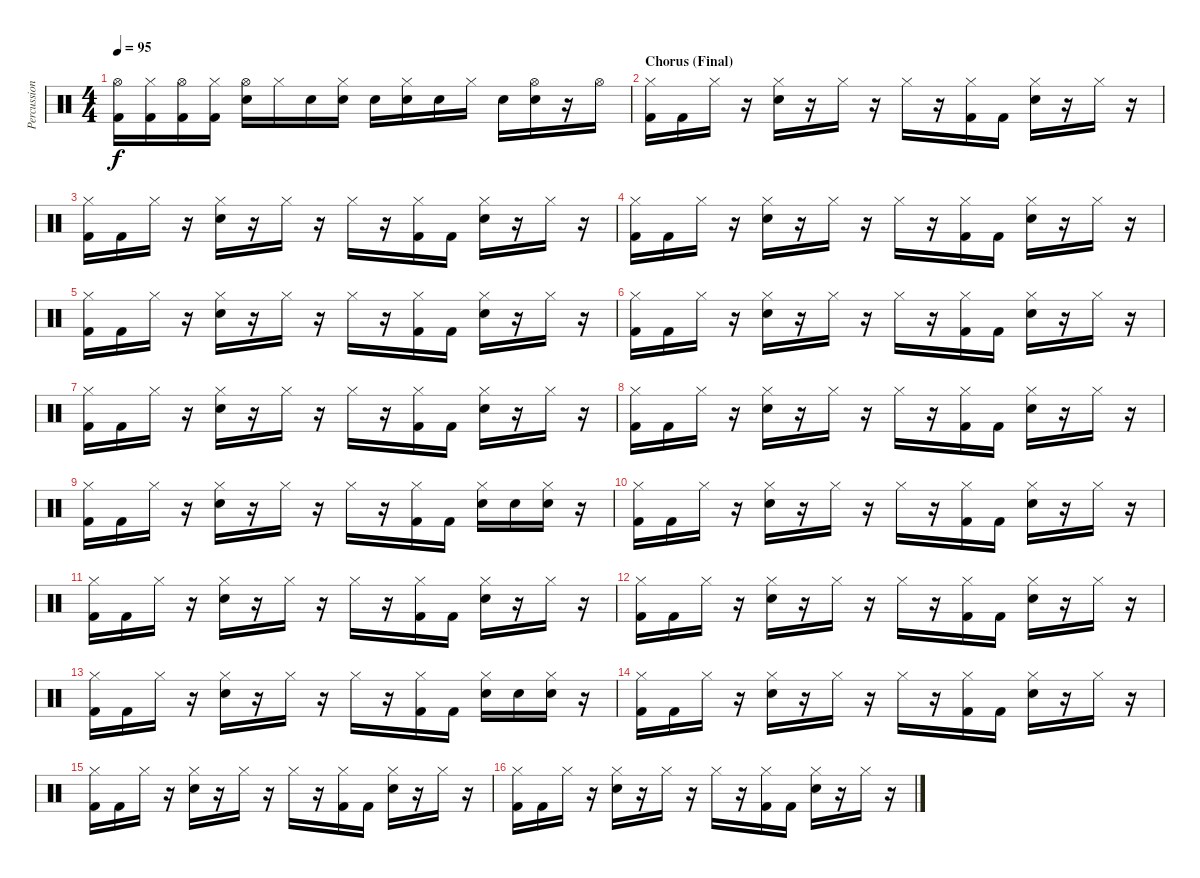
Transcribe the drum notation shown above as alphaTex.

\track ("Percussion" "Percussion") {instrument percussion}
\staff {score}
\articulation defaults
\ts (4 4)
\tempo 95
\clef neutral
\ks c
("Kick (hit) 2" "Hi-Hat (open)").16{dy f} ("Kick (hit) 2" "Hi-Hat (closed)"{x}).16 ("Kick (hit) 2" "Hi-Hat (open)").16 ("Kick (hit) 2" "Hi-Hat (closed)"{x}).16 ("Snare (hit) 2" "Hi-Hat (open)").16 "Hi-Hat (closed)"{x}.16 "Snare (hit) 2".16 ("Snare (hit) 2" "Hi-Hat (closed)"{x}).16 "Snare (hit) 2".16 ("Snare (hit) 2" "Hi-Hat (closed)"{x}).16 "Snare (hit) 2".16 "Hi-Hat (closed)"{x}.16 "Snare (hit) 2".16 ("Snare (hit) 2" "Hi-Hat (open)").16 r.16 "Hi-Hat (open)"{x}.16 |
\section ("" "Chorus (Final)")
("Hi-Hat (closed)" "Kick (hit) 2").16 "Kick (hit) 2".16 "Hi-Hat (closed)".16 r.16 ("Hi-Hat (closed)" "Snare (hit) 2").16 r.16 "Hi-Hat (closed)".16 r.16 "Hi-Hat (closed)".16 r.16 ("Hi-Hat (closed)" "Kick (hit) 2").16 "Kick (hit) 2".16 ("Hi-Hat (closed)" "Snare (hit) 2").16 r.16 "Hi-Hat (closed)".16 r.16 |
("Hi-Hat (closed)" "Kick (hit) 2").16 "Kick (hit) 2".16 "Hi-Hat (closed)".16 r.16 ("Hi-Hat (closed)" "Snare (hit) 2").16 r.16 "Hi-Hat (closed)".16 r.16 "Hi-Hat (closed)".16 r.16 ("Hi-Hat (closed)" "Kick (hit) 2").16 "Kick (hit) 2".16 ("Hi-Hat (closed)" "Snare (hit) 2").16 r.16 "Hi-Hat (closed)".16 r.16 |
("Hi-Hat (closed)" "Kick (hit) 2").16 "Kick (hit) 2".16 "Hi-Hat (closed)".16 r.16 ("Hi-Hat (closed)" "Snare (hit) 2").16 r.16 "Hi-Hat (closed)".16 r.16 "Hi-Hat (closed)".16 r.16 ("Hi-Hat (closed)" "Kick (hit) 2").16 "Kick (hit) 2".16 ("Hi-Hat (closed)" "Snare (hit) 2").16 r.16 "Hi-Hat (closed)".16 r.16 |
("Hi-Hat (closed)" "Kick (hit) 2").16 "Kick (hit) 2".16 "Hi-Hat (closed)".16 r.16 ("Hi-Hat (closed)" "Snare (hit) 2").16 r.16 "Hi-Hat (closed)".16 r.16 "Hi-Hat (closed)".16 r.16 ("Hi-Hat (closed)" "Kick (hit) 2").16 "Kick (hit) 2".16 ("Hi-Hat (closed)" "Snare (hit) 2").16 r.16 "Hi-Hat (closed)".16 r.16 |
("Hi-Hat (closed)" "Kick (hit) 2").16 "Kick (hit) 2".16 "Hi-Hat (closed)".16 r.16 ("Hi-Hat (closed)" "Snare (hit) 2").16 r.16 "Hi-Hat (closed)".16 r.16 "Hi-Hat (closed)".16 r.16 ("Hi-Hat (closed)" "Kick (hit) 2").16 "Kick (hit) 2".16 ("Hi-Hat (closed)" "Snare (hit) 2").16 r.16 "Hi-Hat (closed)".16 r.16 |
("Hi-Hat (closed)" "Kick (hit) 2").16 "Kick (hit) 2".16 "Hi-Hat (closed)".16 r.16 ("Hi-Hat (closed)" "Snare (hit) 2").16 r.16 "Hi-Hat (closed)".16 r.16 "Hi-Hat (closed)".16 r.16 ("Hi-Hat (closed)" "Kick (hit) 2").16 "Kick (hit) 2".16 ("Hi-Hat (closed)" "Snare (hit) 2").16 r.16 "Hi-Hat (closed)".16 r.16 |
("Hi-Hat (closed)" "Kick (hit) 2").16 "Kick (hit) 2".16 "Hi-Hat (closed)".16 r.16 ("Hi-Hat (closed)" "Snare (hit) 2").16 r.16 "Hi-Hat (closed)".16 r.16 "Hi-Hat (closed)".16 r.16 ("Hi-Hat (closed)" "Kick (hit) 2").16 "Kick (hit) 2".16 ("Hi-Hat (closed)" "Snare (hit) 2").16 r.16 "Hi-Hat (closed)".16 r.16 |
("Hi-Hat (closed)" "Kick (hit) 2").16 "Kick (hit) 2".16 "Hi-Hat (closed)".16 r.16 ("Hi-Hat (closed)" "Snare (hit) 2").16 r.16 "Hi-Hat (closed)".16 r.16 "Hi-Hat (closed)".16 r.16 ("Hi-Hat (closed)" "Kick (hit) 2").16 "Kick (hit) 2".16 ("Hi-Hat (closed)" "Snare (hit) 2").16 "Snare (hit) 2".16 ("Hi-Hat (closed)" "Snare (hit) 2").16 r.16 |
("Hi-Hat (closed)" "Kick (hit) 2").16 "Kick (hit) 2".16 "Hi-Hat (closed)".16 r.16 ("Hi-Hat (closed)" "Snare (hit) 2").16 r.16 "Hi-Hat (closed)".16 r.16 "Hi-Hat (closed)".16 r.16 ("Hi-Hat (closed)" "Kick (hit) 2").16 "Kick (hit) 2".16 ("Hi-Hat (closed)" "Snare (hit) 2").16 r.16 "Hi-Hat (closed)".16 r.16 |
("Hi-Hat (closed)" "Kick (hit) 2").16 "Kick (hit) 2".16 "Hi-Hat (closed)".16 r.16 ("Hi-Hat (closed)" "Snare (hit) 2").16 r.16 "Hi-Hat (closed)".16 r.16 "Hi-Hat (closed)".16 r.16 ("Hi-Hat (closed)" "Kick (hit) 2").16 "Kick (hit) 2".16 ("Hi-Hat (closed)" "Snare (hit) 2").16 r.16 "Hi-Hat (closed)".16 r.16 |
("Hi-Hat (closed)" "Kick (hit) 2").16 "Kick (hit) 2".16 "Hi-Hat (closed)".16 r.16 ("Hi-Hat (closed)" "Snare (hit) 2").16 r.16 "Hi-Hat (closed)".16 r.16 "Hi-Hat (closed)".16 r.16 ("Hi-Hat (closed)" "Kick (hit) 2").16 "Kick (hit) 2".16 ("Hi-Hat (closed)" "Snare (hit) 2").16 r.16 "Hi-Hat (closed)".16 r.16 |
("Hi-Hat (closed)" "Kick (hit) 2").16 "Kick (hit) 2".16 "Hi-Hat (closed)".16 r.16 ("Hi-Hat (closed)" "Snare (hit) 2").16 r.16 "Hi-Hat (closed)".16 r.16 "Hi-Hat (closed)".16 r.16 ("Hi-Hat (closed)" "Kick (hit) 2").16 "Kick (hit) 2".16 ("Hi-Hat (closed)" "Snare (hit) 2").16 "Snare (hit) 2".16 ("Hi-Hat (closed)" "Snare (hit) 2").16 r.16 |
("Hi-Hat (closed)" "Kick (hit) 2").16 "Kick (hit) 2".16 "Hi-Hat (closed)".16 r.16 ("Hi-Hat (closed)" "Snare (hit) 2").16 r.16 "Hi-Hat (closed)".16 r.16 "Hi-Hat (closed)".16 r.16 ("Hi-Hat (closed)" "Kick (hit) 2").16 "Kick (hit) 2".16 ("Hi-Hat (closed)" "Snare (hit) 2").16 r.16 "Hi-Hat (closed)".16 r.16 |
("Hi-Hat (closed)" "Kick (hit) 2").16 "Kick (hit) 2".16 "Hi-Hat (closed)".16 r.16 ("Hi-Hat (closed)" "Snare (hit) 2").16 r.16 "Hi-Hat (closed)".16 r.16 "Hi-Hat (closed)".16 r.16 ("Hi-Hat (closed)" "Kick (hit) 2").16 "Kick (hit) 2".16 ("Hi-Hat (closed)" "Snare (hit) 2").16 r.16 "Hi-Hat (closed)".16 r.16 |
("Hi-Hat (closed)" "Kick (hit) 2").16 "Kick (hit) 2".16 "Hi-Hat (closed)".16 r.16 ("Hi-Hat (closed)" "Snare (hit) 2").16 r.16 "Hi-Hat (closed)".16 r.16 "Hi-Hat (closed)".16 r.16 ("Hi-Hat (closed)" "Kick (hit) 2").16 "Kick (hit) 2".16 ("Hi-Hat (closed)" "Snare (hit) 2").16 r.16 "Hi-Hat (closed)".16 r.16
